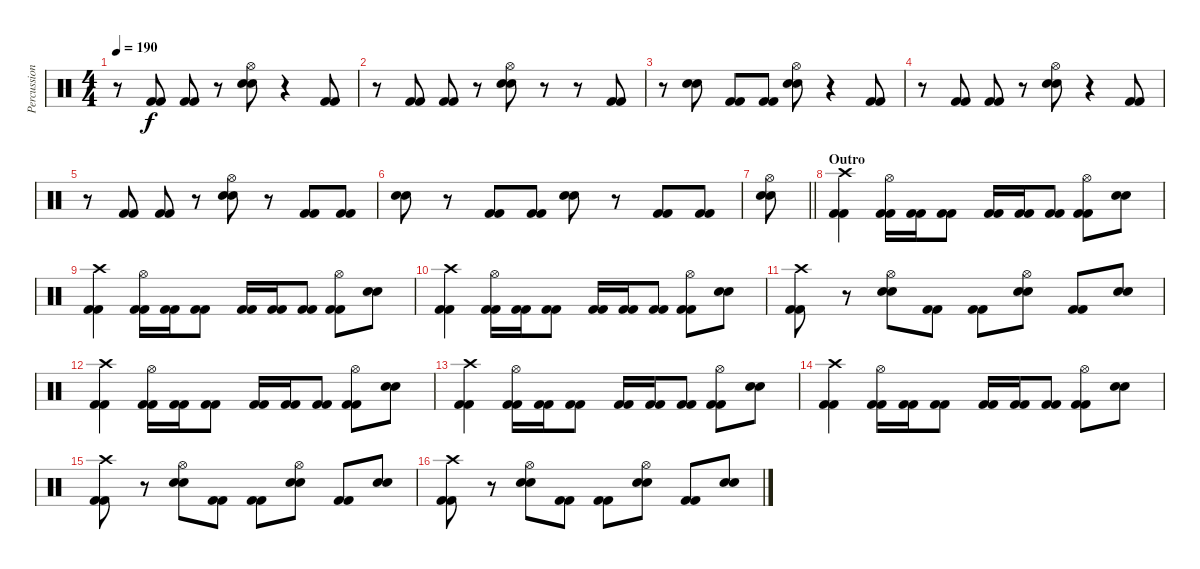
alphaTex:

\track ("Percussions" "Percussion") {instrument percussion}
\staff {score}
\articulation defaults
\ts (4 4)
\tempo 190
\clef neutral
\ks c
r.8{dy f} ("Kick (hit) 2" "Kick (hit) 2").8 ("Kick (hit) 2" "Kick (hit) 2").8 r.8 ("Snare (hit) 2" "Snare (hit) 2" "Hi-Hat (open)").8 r.4 ("Kick (hit) 2" "Kick (hit) 2").8 |
r.8 ("Kick (hit) 2" "Kick (hit) 2").8 ("Kick (hit) 2" "Kick (hit) 2").8 r.8 ("Snare (hit) 2" "Snare (hit) 2" "Hi-Hat (open)").8 r.8 r.8 ("Kick (hit) 2" "Kick (hit) 2").8 |
r.8 ("Snare (hit) 2" "Snare (hit) 2").8 ("Kick (hit) 2" "Kick (hit) 2").8 ("Kick (hit) 2" "Kick (hit) 2").8 ("Snare (hit) 2" "Snare (hit) 2" "Hi-Hat (open)").8 r.4 ("Kick (hit) 2" "Kick (hit) 2").8 |
r.8 ("Kick (hit) 2" "Kick (hit) 2").8 ("Kick (hit) 2" "Kick (hit) 2").8 r.8 ("Snare (hit) 2" "Snare (hit) 2" "Hi-Hat (open)").8 r.4 ("Kick (hit) 2" "Kick (hit) 2").8 |
r.8 ("Kick (hit) 2" "Kick (hit) 2").8 ("Kick (hit) 2" "Kick (hit) 2").8 r.8 ("Snare (hit) 2" "Snare (hit) 2" "Hi-Hat (open)").8 r.8 ("Kick (hit) 2" "Kick (hit) 2").8 ("Kick (hit) 2" "Kick (hit) 2").8 |
("Snare (hit) 2" "Snare (hit) 2").8 r.8 ("Kick (hit) 2" "Kick (hit) 2").8 ("Kick (hit) 2" "Kick (hit) 2").8 ("Snare (hit) 2" "Snare (hit) 2").8 r.8 ("Kick (hit) 2" "Kick (hit) 2").8 ("Kick (hit) 2" "Kick (hit) 2").8 |
\barLineRight lightlight
("Snare (hit) 2" "Snare (hit) 2" "Hi-Hat (open)").8 |
\section ("" "Outro")
("Kick (hit) 2" "Kick (hit) 2" "Crash high (hit)").4 ("Kick (hit) 2" "Kick (hit) 2" "Hi-Hat (open)").16 ("Kick (hit) 2" "Kick (hit) 2").16 ("Kick (hit) 2" "Kick (hit) 2").8 ("Kick (hit) 2" "Kick (hit) 2").16 ("Kick (hit) 2" "Kick (hit) 2").16 ("Kick (hit) 2" "Kick (hit) 2").8 ("Kick (hit) 2" "Kick (hit) 2" "Hi-Hat (open)").8 ("Electric Snare (hit)" "Electric Snare (hit)").8 |
("Kick (hit) 2" "Kick (hit) 2" "Crash high (hit)").4 ("Kick (hit) 2" "Kick (hit) 2" "Hi-Hat (open)").16 ("Kick (hit) 2" "Kick (hit) 2").16 ("Kick (hit) 2" "Kick (hit) 2").8 ("Kick (hit) 2" "Kick (hit) 2").16 ("Kick (hit) 2" "Kick (hit) 2").16 ("Kick (hit) 2" "Kick (hit) 2").8 ("Kick (hit) 2" "Kick (hit) 2" "Hi-Hat (open)").8 ("Electric Snare (hit)" "Electric Snare (hit)").8 |
("Kick (hit) 2" "Kick (hit) 2" "Crash high (hit)").4 ("Kick (hit) 2" "Kick (hit) 2" "Hi-Hat (open)").16 ("Kick (hit) 2" "Kick (hit) 2").16 ("Kick (hit) 2" "Kick (hit) 2").8 ("Kick (hit) 2" "Kick (hit) 2").16 ("Kick (hit) 2" "Kick (hit) 2").16 ("Kick (hit) 2" "Kick (hit) 2").8 ("Kick (hit) 2" "Kick (hit) 2" "Hi-Hat (open)").8 ("Electric Snare (hit)" "Electric Snare (hit)").8 |
("Kick (hit) 2" "Kick (hit) 2" "Crash high (hit)").8 r.8 ("Electric Snare (hit)" "Electric Snare (hit)" "Hi-Hat (open)").8 ("Kick (hit) 2" "Kick (hit) 2").8 ("Kick (hit) 2" "Kick (hit) 2").8 ("Electric Snare (hit)" "Electric Snare (hit)" "Hi-Hat (open)").8 ("Kick (hit) 2" "Kick (hit) 2").8 ("Electric Snare (hit)" "Electric Snare (hit)").8 |
("Kick (hit) 2" "Kick (hit) 2" "Crash high (hit)").4 ("Kick (hit) 2" "Kick (hit) 2" "Hi-Hat (open)").16 ("Kick (hit) 2" "Kick (hit) 2").16 ("Kick (hit) 2" "Kick (hit) 2").8 ("Kick (hit) 2" "Kick (hit) 2").16 ("Kick (hit) 2" "Kick (hit) 2").16 ("Kick (hit) 2" "Kick (hit) 2").8 ("Kick (hit) 2" "Kick (hit) 2" "Hi-Hat (open)").8 ("Electric Snare (hit)" "Electric Snare (hit)").8 |
("Kick (hit) 2" "Kick (hit) 2" "Crash high (hit)").4 ("Kick (hit) 2" "Kick (hit) 2" "Hi-Hat (open)").16 ("Kick (hit) 2" "Kick (hit) 2").16 ("Kick (hit) 2" "Kick (hit) 2").8 ("Kick (hit) 2" "Kick (hit) 2").16 ("Kick (hit) 2" "Kick (hit) 2").16 ("Kick (hit) 2" "Kick (hit) 2").8 ("Kick (hit) 2" "Kick (hit) 2" "Hi-Hat (open)").8 ("Electric Snare (hit)" "Electric Snare (hit)").8 |
("Kick (hit) 2" "Kick (hit) 2" "Crash high (hit)").4 ("Kick (hit) 2" "Kick (hit) 2" "Hi-Hat (open)").16 ("Kick (hit) 2" "Kick (hit) 2").16 ("Kick (hit) 2" "Kick (hit) 2").8 ("Kick (hit) 2" "Kick (hit) 2").16 ("Kick (hit) 2" "Kick (hit) 2").16 ("Kick (hit) 2" "Kick (hit) 2").8 ("Kick (hit) 2" "Kick (hit) 2" "Hi-Hat (open)").8 ("Electric Snare (hit)" "Electric Snare (hit)").8 |
("Kick (hit) 2" "Kick (hit) 2" "Crash high (hit)").8 r.8 ("Electric Snare (hit)" "Electric Snare (hit)" "Hi-Hat (open)").8 ("Kick (hit) 2" "Kick (hit) 2").8 ("Kick (hit) 2" "Kick (hit) 2").8 ("Electric Snare (hit)" "Electric Snare (hit)" "Hi-Hat (open)").8 ("Kick (hit) 2" "Kick (hit) 2").8 ("Electric Snare (hit)" "Electric Snare (hit)").8 |
("Kick (hit) 2" "Kick (hit) 2" "Crash high (hit)").8 r.8 ("Electric Snare (hit)" "Electric Snare (hit)" "Hi-Hat (open)").8 ("Kick (hit) 2" "Kick (hit) 2").8 ("Kick (hit) 2" "Kick (hit) 2").8 ("Electric Snare (hit)" "Electric Snare (hit)" "Hi-Hat (open)").8 ("Kick (hit) 2" "Kick (hit) 2").8 ("Electric Snare (hit)" "Electric Snare (hit)").8
